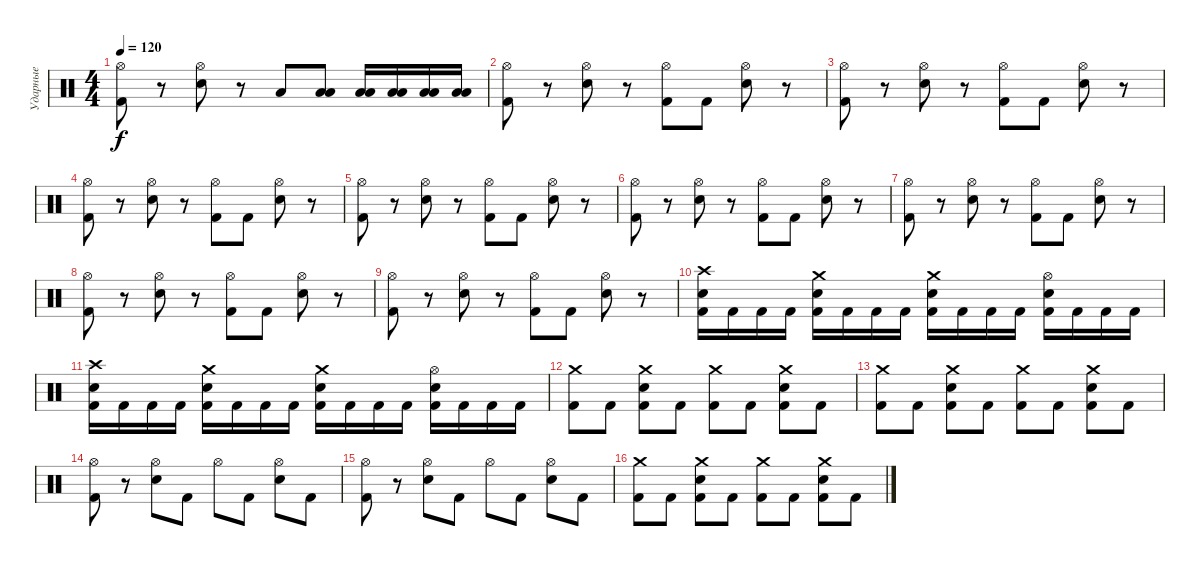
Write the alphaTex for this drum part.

\track ("Ударные" "Ударные") {instrument percussion}
\staff {score}
\articulation defaults
\ts (4 4)
\tempo 120
\clef neutral
\ks c
("Hi-Hat (open)" "Kick (hit) 2").8{dy f} r.8 ("Hi-Hat (open)" "Electric Snare (hit)").8 r.8 "Low Tom (hit)".8 ("Low Tom (hit)" "Low Floor Tom (hit)").8 ("Low Tom (hit)" "Low Floor Tom (hit)").16 ("Low Tom (hit)" "Low Floor Tom (hit)").16 ("Low Tom (hit)" "Low Floor Tom (hit)").16 ("Low Tom (hit)" "Low Floor Tom (hit)").16 |
("Hi-Hat (open)" "Kick (hit) 2").8 r.8 ("Hi-Hat (open)" "Electric Snare (hit)").8 r.8 ("Hi-Hat (open)" "Kick (hit) 2").8 "Kick (hit) 2".8 ("Hi-Hat (open)" "Electric Snare (hit)").8 r.8 |
("Hi-Hat (open)" "Kick (hit) 2").8 r.8 ("Hi-Hat (open)" "Electric Snare (hit)").8 r.8 ("Hi-Hat (open)" "Kick (hit) 2").8 "Kick (hit) 2".8 ("Hi-Hat (open)" "Electric Snare (hit)").8 r.8 |
("Hi-Hat (open)" "Kick (hit) 2").8 r.8 ("Hi-Hat (open)" "Electric Snare (hit)").8 r.8 ("Hi-Hat (open)" "Kick (hit) 2").8 "Kick (hit) 2".8 ("Hi-Hat (open)" "Electric Snare (hit)").8 r.8 |
("Hi-Hat (open)" "Kick (hit) 2").8 r.8 ("Hi-Hat (open)" "Electric Snare (hit)").8 r.8 ("Hi-Hat (open)" "Kick (hit) 2").8 "Kick (hit) 2".8 ("Hi-Hat (open)" "Electric Snare (hit)").8 r.8 |
("Hi-Hat (open)" "Kick (hit) 2").8 r.8 ("Hi-Hat (open)" "Electric Snare (hit)").8 r.8 ("Hi-Hat (open)" "Kick (hit) 2").8 "Kick (hit) 2".8 ("Hi-Hat (open)" "Electric Snare (hit)").8 r.8 |
("Hi-Hat (open)" "Kick (hit) 2").8 r.8 ("Hi-Hat (open)" "Electric Snare (hit)").8 r.8 ("Hi-Hat (open)" "Kick (hit) 2").8 "Kick (hit) 2".8 ("Hi-Hat (open)" "Electric Snare (hit)").8 r.8 |
("Hi-Hat (open)" "Kick (hit) 2").8 r.8 ("Hi-Hat (open)" "Electric Snare (hit)").8 r.8 ("Hi-Hat (open)" "Kick (hit) 2").8 "Kick (hit) 2".8 ("Hi-Hat (open)" "Electric Snare (hit)").8 r.8 |
("Hi-Hat (open)" "Kick (hit) 2").8 r.8 ("Hi-Hat (open)" "Electric Snare (hit)").8 r.8 ("Hi-Hat (open)" "Kick (hit) 2").8 "Kick (hit) 2".8 ("Hi-Hat (open)" "Electric Snare (hit)").8 r.8 |
("Crash high (hit)" "Kick (hit) 2" "Electric Snare (hit)").16 "Kick (hit) 2".16 "Kick (hit) 2".16 "Kick (hit) 2".16 ("Crash medium (hit)" "Kick (hit) 2" "Electric Snare (hit)").16 "Kick (hit) 2".16 "Kick (hit) 2".16 "Kick (hit) 2".16 ("Crash medium (hit)" "Kick (hit) 2" "Electric Snare (hit)").16 "Kick (hit) 2".16 "Kick (hit) 2".16 "Kick (hit) 2".16 ("Hi-Hat (open)" "Kick (hit) 2" "Electric Snare (hit)").16 "Kick (hit) 2".16 "Kick (hit) 2".16 "Kick (hit) 2".16 |
("Crash high (hit)" "Kick (hit) 2" "Electric Snare (hit)").16 "Kick (hit) 2".16 "Kick (hit) 2".16 "Kick (hit) 2".16 ("Crash medium (hit)" "Kick (hit) 2" "Electric Snare (hit)").16 "Kick (hit) 2".16 "Kick (hit) 2".16 "Kick (hit) 2".16 ("Crash medium (hit)" "Kick (hit) 2" "Electric Snare (hit)").16 "Kick (hit) 2".16 "Kick (hit) 2".16 "Kick (hit) 2".16 ("Hi-Hat (open)" "Kick (hit) 2" "Electric Snare (hit)").16 "Kick (hit) 2".16 "Kick (hit) 2".16 "Kick (hit) 2".16 |
("Crash medium (hit)" "Kick (hit) 2").8 "Kick (hit) 2".8 ("Crash medium (hit)" "Kick (hit) 2" "Electric Snare (hit)").8 "Kick (hit) 2".8 ("Crash medium (hit)" "Kick (hit) 2").8 "Kick (hit) 2".8 ("Crash medium (hit)" "Kick (hit) 2" "Electric Snare (hit)").8 "Kick (hit) 2".8 |
("Crash medium (hit)" "Kick (hit) 2").8 "Kick (hit) 2".8 ("Crash medium (hit)" "Kick (hit) 2" "Electric Snare (hit)").8 "Kick (hit) 2".8 ("Crash medium (hit)" "Kick (hit) 2").8 "Kick (hit) 2".8 ("Crash medium (hit)" "Kick (hit) 2" "Electric Snare (hit)").8 "Kick (hit) 2".8 |
("Hi-Hat (open)" "Kick (hit) 2").8 r.8 ("Hi-Hat (open)" "Electric Snare (hit)").8 "Kick (hit) 2".8 "Hi-Hat (open)".8 "Kick (hit) 2".8 ("Hi-Hat (open)" "Electric Snare (hit)").8 "Kick (hit) 2".8 |
("Hi-Hat (open)" "Kick (hit) 2").8 r.8 ("Hi-Hat (open)" "Electric Snare (hit)").8 "Kick (hit) 2".8 "Hi-Hat (open)".8 "Kick (hit) 2".8 ("Hi-Hat (open)" "Electric Snare (hit)").8 "Kick (hit) 2".8 |
("Crash medium (hit)" "Kick (hit) 2").8 "Kick (hit) 2".8 ("Crash medium (hit)" "Kick (hit) 2" "Electric Snare (hit)").8 "Kick (hit) 2".8 ("Crash medium (hit)" "Kick (hit) 2").8 "Kick (hit) 2".8 ("Crash medium (hit)" "Kick (hit) 2" "Electric Snare (hit)").8 "Kick (hit) 2".8
